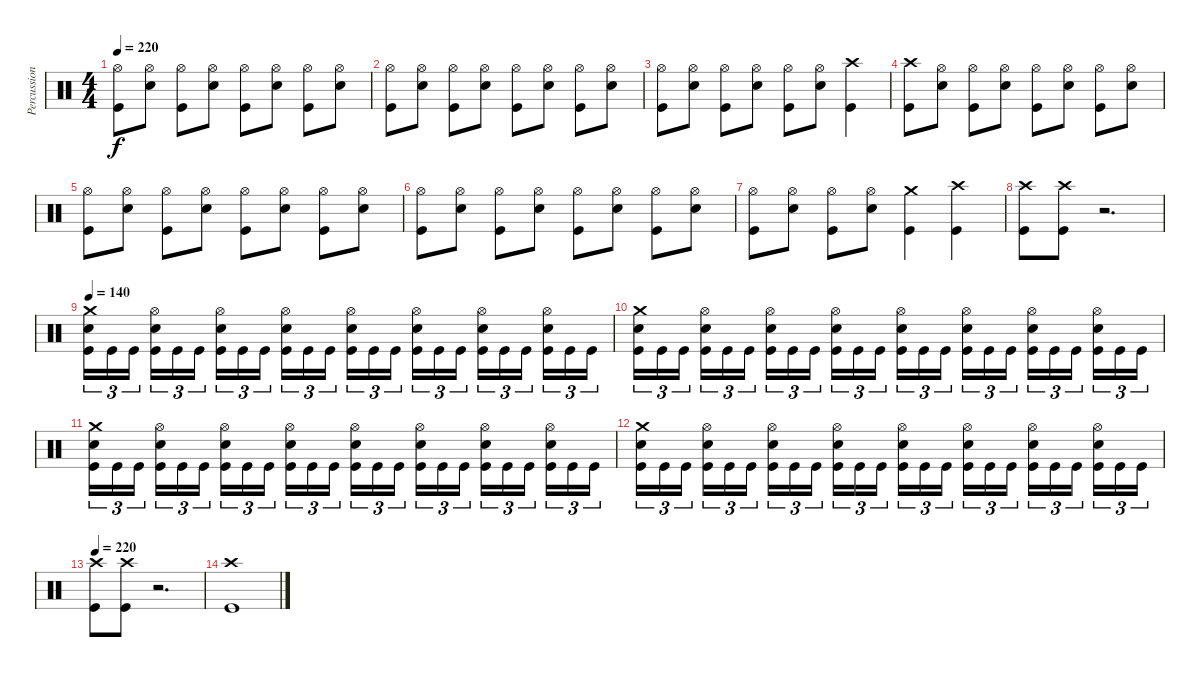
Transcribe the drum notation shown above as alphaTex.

\track ("Percussion" "Percussion") {instrument percussion}
\staff {score}
\articulation defaults
\ts (4 4)
\tempo 220
\clef neutral
\ks c
("Hi-Hat (open)" "Kick (hit)").8{dy f} ("Hi-Hat (open)" "Snare (hit) 2").8 ("Hi-Hat (open)" "Kick (hit)").8 ("Hi-Hat (open)" "Snare (hit) 2").8 ("Hi-Hat (open)" "Kick (hit)").8 ("Hi-Hat (open)" "Snare (hit) 2").8 ("Hi-Hat (open)" "Kick (hit)").8 ("Hi-Hat (open)" "Snare (hit) 2").8 |
("Hi-Hat (open)" "Kick (hit)").8 ("Hi-Hat (open)" "Snare (hit) 2").8 ("Hi-Hat (open)" "Kick (hit)").8 ("Hi-Hat (open)" "Snare (hit) 2").8 ("Hi-Hat (open)" "Kick (hit)").8 ("Hi-Hat (open)" "Snare (hit) 2").8 ("Hi-Hat (open)" "Kick (hit)").8 ("Hi-Hat (open)" "Snare (hit) 2").8 |
("Hi-Hat (open)" "Kick (hit)").8 ("Hi-Hat (open)" "Snare (hit) 2").8 ("Hi-Hat (open)" "Kick (hit)").8 ("Hi-Hat (open)" "Snare (hit) 2").8 ("Hi-Hat (open)" "Kick (hit)").8 ("Hi-Hat (open)" "Snare (hit) 2").8 ("Crash high (hit)" "Kick (hit)").4 |
("Crash high (hit)" "Kick (hit)").8 ("Hi-Hat (open)" "Snare (hit) 2").8 ("Hi-Hat (open)" "Kick (hit)").8 ("Hi-Hat (open)" "Snare (hit) 2").8 ("Hi-Hat (open)" "Kick (hit)").8 ("Hi-Hat (open)" "Snare (hit) 2").8 ("Hi-Hat (open)" "Kick (hit)").8 ("Hi-Hat (open)" "Snare (hit) 2").8 |
("Hi-Hat (open)" "Kick (hit)").8 ("Hi-Hat (open)" "Snare (hit) 2").8 ("Hi-Hat (open)" "Kick (hit)").8 ("Hi-Hat (open)" "Snare (hit) 2").8 ("Hi-Hat (open)" "Kick (hit)").8 ("Hi-Hat (open)" "Snare (hit) 2").8 ("Hi-Hat (open)" "Kick (hit)").8 ("Hi-Hat (open)" "Snare (hit) 2").8 |
("Hi-Hat (open)" "Kick (hit)").8 ("Hi-Hat (open)" "Snare (hit) 2").8 ("Hi-Hat (open)" "Kick (hit)").8 ("Hi-Hat (open)" "Snare (hit) 2").8 ("Hi-Hat (open)" "Kick (hit)").8 ("Hi-Hat (open)" "Snare (hit) 2").8 ("Hi-Hat (open)" "Kick (hit)").8 ("Hi-Hat (open)" "Snare (hit) 2").8 |
("Hi-Hat (open)" "Kick (hit)").8 ("Hi-Hat (open)" "Snare (hit) 2").8 ("Hi-Hat (open)" "Kick (hit)").8 ("Hi-Hat (open)" "Snare (hit) 2").8 ("Crash medium (hit)" "Kick (hit)").4 ("Crash high (hit)" "Kick (hit)").4 |
("Crash high (hit)" "Kick (hit)").8 ("Crash high (hit)" "Kick (hit)").8 r.2{d} |
\tempo 140
("Crash medium (hit)" "Snare (hit) 2" "Kick (hit)").16{tu (3 2)} "Kick (hit)".16{tu (3 2)} "Kick (hit)".16{tu (3 2)} ("Hi-Hat (open)" "Snare (hit) 2" "Kick (hit)").16{tu (3 2)} "Kick (hit)".16{tu (3 2)} "Kick (hit)".16{tu (3 2)} ("Hi-Hat (open)" "Snare (hit) 2" "Kick (hit)").16{tu (3 2)} "Kick (hit)".16{tu (3 2)} "Kick (hit)".16{tu (3 2)} ("Hi-Hat (open)" "Snare (hit) 2" "Kick (hit)").16{tu (3 2)} "Kick (hit)".16{tu (3 2)} "Kick (hit)".16{tu (3 2)} ("Hi-Hat (open)" "Snare (hit) 2" "Kick (hit)").16{tu (3 2)} "Kick (hit)".16{tu (3 2)} "Kick (hit)".16{tu (3 2)} ("Hi-Hat (open)" "Snare (hit) 2" "Kick (hit)").16{tu (3 2)} "Kick (hit)".16{tu (3 2)} "Kick (hit)".16{tu (3 2)} ("Hi-Hat (open)" "Snare (hit) 2" "Kick (hit)").16{tu (3 2)} "Kick (hit)".16{tu (3 2)} "Kick (hit)".16{tu (3 2)} ("Hi-Hat (open)" "Snare (hit) 2" "Kick (hit)").16{tu (3 2)} "Kick (hit)".16{tu (3 2)} "Kick (hit)".16{tu (3 2)} |
("Crash medium (hit)" "Snare (hit) 2" "Kick (hit)").16{tu (3 2)} "Kick (hit)".16{tu (3 2)} "Kick (hit)".16{tu (3 2)} ("Hi-Hat (open)" "Snare (hit) 2" "Kick (hit)").16{tu (3 2)} "Kick (hit)".16{tu (3 2)} "Kick (hit)".16{tu (3 2)} ("Hi-Hat (open)" "Snare (hit) 2" "Kick (hit)").16{tu (3 2)} "Kick (hit)".16{tu (3 2)} "Kick (hit)".16{tu (3 2)} ("Hi-Hat (open)" "Snare (hit) 2" "Kick (hit)").16{tu (3 2)} "Kick (hit)".16{tu (3 2)} "Kick (hit)".16{tu (3 2)} ("Hi-Hat (open)" "Snare (hit) 2" "Kick (hit)").16{tu (3 2)} "Kick (hit)".16{tu (3 2)} "Kick (hit)".16{tu (3 2)} ("Hi-Hat (open)" "Snare (hit) 2" "Kick (hit)").16{tu (3 2)} "Kick (hit)".16{tu (3 2)} "Kick (hit)".16{tu (3 2)} ("Hi-Hat (open)" "Snare (hit) 2" "Kick (hit)").16{tu (3 2)} "Kick (hit)".16{tu (3 2)} "Kick (hit)".16{tu (3 2)} ("Hi-Hat (open)" "Snare (hit) 2" "Kick (hit)").16{tu (3 2)} "Kick (hit)".16{tu (3 2)} "Kick (hit)".16{tu (3 2)} |
("Crash medium (hit)" "Snare (hit) 2" "Kick (hit)").16{tu (3 2)} "Kick (hit)".16{tu (3 2)} "Kick (hit)".16{tu (3 2)} ("Hi-Hat (open)" "Snare (hit) 2" "Kick (hit)").16{tu (3 2)} "Kick (hit)".16{tu (3 2)} "Kick (hit)".16{tu (3 2)} ("Hi-Hat (open)" "Snare (hit) 2" "Kick (hit)").16{tu (3 2)} "Kick (hit)".16{tu (3 2)} "Kick (hit)".16{tu (3 2)} ("Hi-Hat (open)" "Snare (hit) 2" "Kick (hit)").16{tu (3 2)} "Kick (hit)".16{tu (3 2)} "Kick (hit)".16{tu (3 2)} ("Hi-Hat (open)" "Snare (hit) 2" "Kick (hit)").16{tu (3 2)} "Kick (hit)".16{tu (3 2)} "Kick (hit)".16{tu (3 2)} ("Hi-Hat (open)" "Snare (hit) 2" "Kick (hit)").16{tu (3 2)} "Kick (hit)".16{tu (3 2)} "Kick (hit)".16{tu (3 2)} ("Hi-Hat (open)" "Snare (hit) 2" "Kick (hit)").16{tu (3 2)} "Kick (hit)".16{tu (3 2)} "Kick (hit)".16{tu (3 2)} ("Hi-Hat (open)" "Snare (hit) 2" "Kick (hit)").16{tu (3 2)} "Kick (hit)".16{tu (3 2)} "Kick (hit)".16{tu (3 2)} |
("Crash medium (hit)" "Snare (hit) 2" "Kick (hit)").16{tu (3 2)} "Kick (hit)".16{tu (3 2)} "Kick (hit)".16{tu (3 2)} ("Hi-Hat (open)" "Snare (hit) 2" "Kick (hit)").16{tu (3 2)} "Kick (hit)".16{tu (3 2)} "Kick (hit)".16{tu (3 2)} ("Hi-Hat (open)" "Snare (hit) 2" "Kick (hit)").16{tu (3 2)} "Kick (hit)".16{tu (3 2)} "Kick (hit)".16{tu (3 2)} ("Hi-Hat (open)" "Snare (hit) 2" "Kick (hit)").16{tu (3 2)} "Kick (hit)".16{tu (3 2)} "Kick (hit)".16{tu (3 2)} ("Hi-Hat (open)" "Snare (hit) 2" "Kick (hit)").16{tu (3 2)} "Kick (hit)".16{tu (3 2)} "Kick (hit)".16{tu (3 2)} ("Hi-Hat (open)" "Snare (hit) 2" "Kick (hit)").16{tu (3 2)} "Kick (hit)".16{tu (3 2)} "Kick (hit)".16{tu (3 2)} ("Hi-Hat (open)" "Snare (hit) 2" "Kick (hit)").16{tu (3 2)} "Kick (hit)".16{tu (3 2)} "Kick (hit)".16{tu (3 2)} ("Hi-Hat (open)" "Snare (hit) 2" "Kick (hit)").16{tu (3 2)} "Kick (hit)".16{tu (3 2)} "Kick (hit)".16{tu (3 2)} |
\tempo 220
("Crash high (hit)" "Kick (hit)").8 ("Crash high (hit)" "Kick (hit)").8 r.2{d} |
("Crash high (hit)" "Kick (hit)").1
